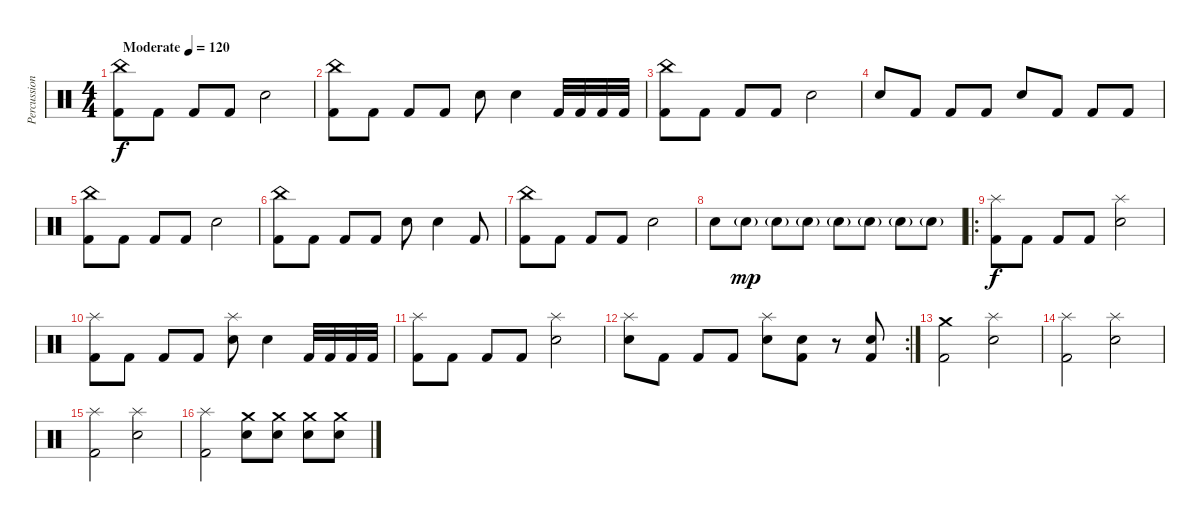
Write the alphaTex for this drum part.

\track ("Percussion" "Percussion") {instrument percussion}
\staff {score}
\articulation defaults
\ts (4 4)
\tempo (120 "Moderate")
\clef neutral
\ks c
("China (hit)" "Kick (hit) 2").8{dy f} "Kick (hit) 2".8 "Kick (hit) 2".8 "Kick (hit) 2".8 "Electric Snare (hit)".2 |
("China (hit)" "Kick (hit) 2").8 "Kick (hit) 2".8 "Kick (hit) 2".8 "Kick (hit) 2".8 "Electric Snare (hit)".8 "Electric Snare (hit)".4 "Kick (hit) 2".32 "Kick (hit) 2".32 "Kick (hit) 2".32 "Kick (hit) 2".32 |
("China (hit)" "Kick (hit) 2").8 "Kick (hit) 2".8 "Kick (hit) 2".8 "Kick (hit) 2".8 "Electric Snare (hit)".2 |
"Electric Snare (hit)".8 "Kick (hit) 2".8 "Kick (hit) 2".8 "Kick (hit) 2".8 "Electric Snare (hit)".8 "Kick (hit) 2".8 "Kick (hit) 2".8 "Kick (hit) 2".8 |
("China (hit)" "Kick (hit) 2").8 "Kick (hit) 2".8 "Kick (hit) 2".8 "Kick (hit) 2".8 "Electric Snare (hit)".2 |
("China (hit)" "Kick (hit) 2").8 "Kick (hit) 2".8 "Kick (hit) 2".8 "Kick (hit) 2".8 "Electric Snare (hit)".8 "Electric Snare (hit)".4 "Kick (hit) 2".8 |
("China (hit)" "Kick (hit) 2").8 "Kick (hit) 2".8 "Kick (hit) 2".8 "Kick (hit) 2".8 "Electric Snare (hit)".2 |
"Electric Snare (hit)".8 "Electric Snare (hit)"{g}.8{dy mp} "Electric Snare (hit)"{g}.8 "Electric Snare (hit)"{g}.8 "Electric Snare (hit)"{g}.8 "Electric Snare (hit)"{g}.8 "Electric Snare (hit)"{g}.8 "Electric Snare (hit)"{g}.8 |
\ro
("Splash (hit)" "Kick (hit) 2").8{dy f} "Kick (hit) 2".8 "Kick (hit) 2".8 "Kick (hit) 2".8 ("Splash (hit)" "Electric Snare (hit)").2 |
("Splash (hit)" "Kick (hit) 2").8 "Kick (hit) 2".8 "Kick (hit) 2".8 "Kick (hit) 2".8 ("Splash (hit)" "Electric Snare (hit)").8 "Electric Snare (hit)".4 "Kick (hit) 2".32 "Kick (hit) 2".32 "Kick (hit) 2".32 "Kick (hit) 2".32 |
("Splash (hit)" "Kick (hit) 2").8 "Kick (hit) 2".8 "Kick (hit) 2".8 "Kick (hit) 2".8 ("Splash (hit)" "Electric Snare (hit)").2 |
\rc 2
("Splash (hit)" "Electric Snare (hit)").8 "Kick (hit) 2".8 "Kick (hit) 2".8 "Kick (hit) 2".8 ("Splash (hit)" "Electric Snare (hit)").8 ("Electric Snare (hit)" "Kick (hit) 2").8 r.8 ("Electric Snare (hit)" "Kick (hit) 2").8 |
("Crash medium (hit)" "Kick (hit) 2").2 ("Splash (hit)" "Electric Snare (hit)").2 |
("Splash (hit)" "Kick (hit) 2").2 ("Splash (hit)" "Electric Snare (hit)").2 |
("Splash (hit)" "Kick (hit) 2").2 ("Splash (hit)" "Electric Snare (hit)").2 |
("Splash (hit)" "Kick (hit) 2").2 ("Crash medium (hit)" "Electric Snare (hit)").8 ("Crash medium (hit)" "Electric Snare (hit)").8 ("Crash medium (hit)" "Electric Snare (hit)").8 ("Crash medium (hit)" "Electric Snare (hit)").8
